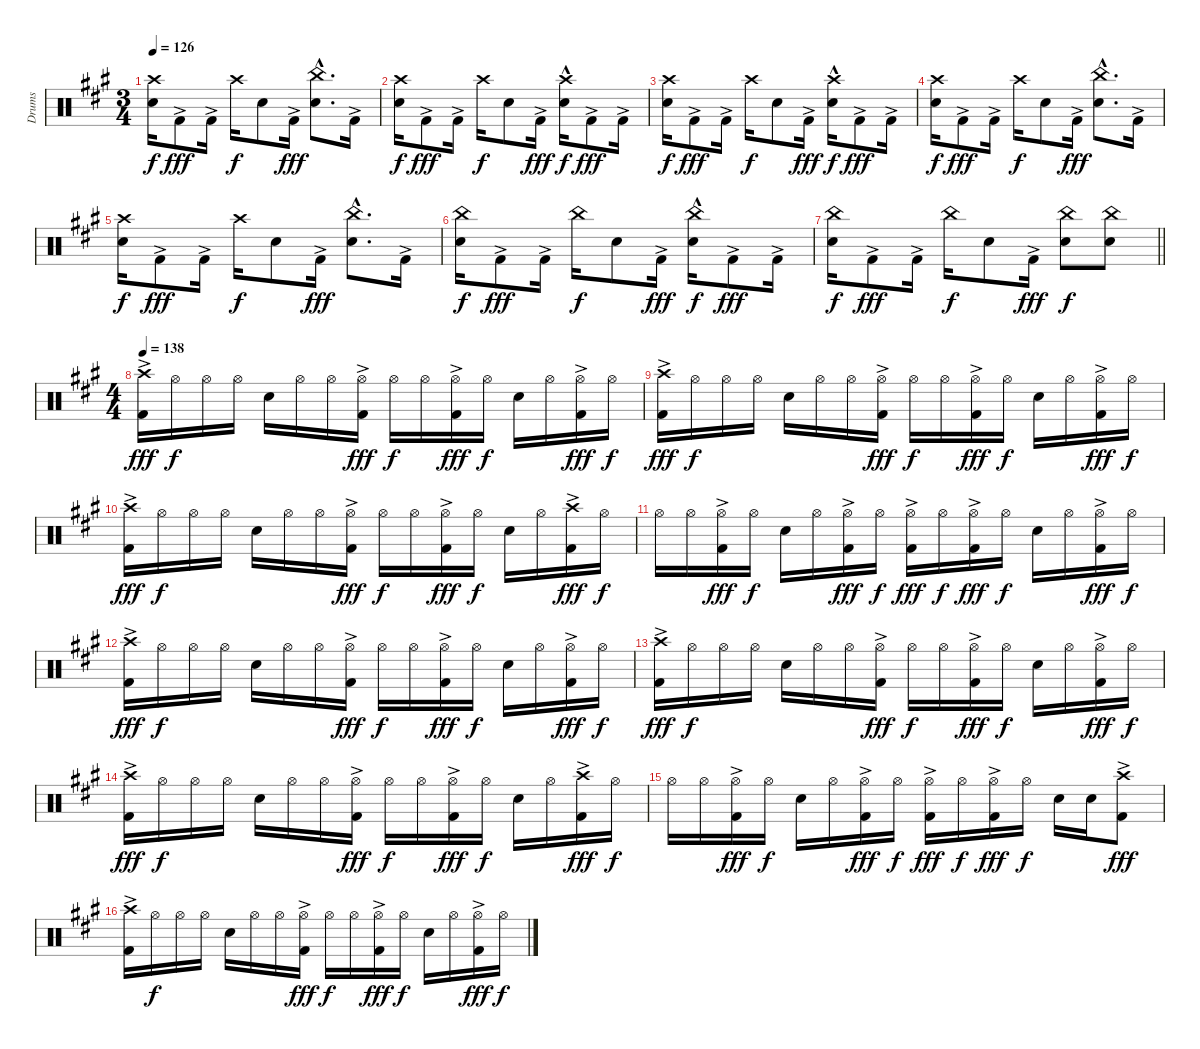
\track ("Drums" "Drums") {instrument percussion}
\staff {score}
\articulation defaults
\ts (3 4)
\tempo 126
\clef neutral
\ks f#minor
("Crash high (hit)" "Snare (hit) 2").16{dy f} "Kick (hit) 2"{ac}.8{dy fff} "Kick (hit) 2"{ac}.16 "Crash high (hit)".16{dy f} "Snare (hit) 2".8 "Kick (hit) 2"{ac}.16{dy fff} ("China (hit)"{hac} "Snare (hit) 2"{hac}).8{d} "Kick (hit) 2"{ac}.16 |
("Crash high (hit)" "Snare (hit) 2").16{dy f} "Kick (hit) 2"{ac}.8{dy fff} "Kick (hit) 2"{ac}.16 "Crash high (hit)".16{dy f} "Snare (hit) 2".8 "Kick (hit) 2"{ac}.16{dy fff} ("Crash high (hit)"{hac} "Snare (hit) 2").16{dy f} "Kick (hit) 2"{ac}.8{dy fff} "Kick (hit) 2"{ac}.16 |
("Crash high (hit)" "Snare (hit) 2").16{dy f} "Kick (hit) 2"{ac}.8{dy fff} "Kick (hit) 2"{ac}.16 "Crash high (hit)".16{dy f} "Snare (hit) 2".8 "Kick (hit) 2"{ac}.16{dy fff} ("Crash high (hit)"{hac} "Snare (hit) 2").16{dy f} "Kick (hit) 2"{ac}.8{dy fff} "Kick (hit) 2"{ac}.16 |
("Crash high (hit)" "Snare (hit) 2").16{dy f} "Kick (hit) 2"{ac}.8{dy fff} "Kick (hit) 2"{ac}.16 "Crash high (hit)".16{dy f} "Snare (hit) 2".8 "Kick (hit) 2"{ac}.16{dy fff} ("China (hit)"{hac} "Snare (hit) 2"{hac}).8{d} "Kick (hit) 2"{ac}.16 |
("Crash high (hit)" "Snare (hit) 2").16{dy f} "Kick (hit) 2"{ac}.8{dy fff} "Kick (hit) 2"{ac}.16 "Crash high (hit)".16{dy f} "Snare (hit) 2".8 "Kick (hit) 2"{ac}.16{dy fff} ("China (hit)"{hac} "Snare (hit) 2"{hac}).8{d} "Kick (hit) 2"{ac}.16 |
("China (hit)" "Snare (hit) 2").16{dy f} "Kick (hit) 2"{ac}.8{dy fff} "Kick (hit) 2"{ac}.16 "China (hit)".16{dy f} "Snare (hit) 2".8 "Kick (hit) 2"{ac}.16{dy fff} ("China (hit)"{hac} "Snare (hit) 2").16{dy f} "Kick (hit) 2"{ac}.8{dy fff} "Kick (hit) 2"{ac}.16 |
\barLineRight lightlight
("China (hit)" "Snare (hit) 2").16{dy f} "Kick (hit) 2"{ac}.8{dy fff} "Kick (hit) 2"{ac}.16 "China (hit)".16{dy f} "Snare (hit) 2".8 "Kick (hit) 2"{ac}.16{dy fff} ("China (hit)" "Snare (hit) 2").8{dy f} ("China (hit)" "Snare (hit) 2").8 |
\ts (4 4)
\tempo 138
("Crash high (hit)" "Kick (hit) 2"{ac}).16{dy fff} "Hi-Hat (open)".16{dy f} "Hi-Hat (open)".16 "Hi-Hat (open)".16 "Snare (hit) 2".16 "Hi-Hat (open)".16 "Hi-Hat (open)".16 ("Hi-Hat (open)" "Kick (hit) 2"{ac}).16{dy fff} "Hi-Hat (open)".16{dy f} "Hi-Hat (open)".16 ("Hi-Hat (open)" "Kick (hit) 2"{ac}).16{dy fff} "Hi-Hat (open)".16{dy f} "Snare (hit) 2".16 "Hi-Hat (open)".16 ("Hi-Hat (open)" "Kick (hit) 2"{ac}).16{dy fff} "Hi-Hat (open)".16{dy f} |
("Crash high (hit)" "Kick (hit) 2"{ac}).16{dy fff} "Hi-Hat (open)".16{dy f} "Hi-Hat (open)".16 "Hi-Hat (open)".16 "Snare (hit) 2".16 "Hi-Hat (open)".16 "Hi-Hat (open)".16 ("Hi-Hat (open)" "Kick (hit) 2"{ac}).16{dy fff} "Hi-Hat (open)".16{dy f} "Hi-Hat (open)".16 ("Hi-Hat (open)" "Kick (hit) 2"{ac}).16{dy fff} "Hi-Hat (open)".16{dy f} "Snare (hit) 2".16 "Hi-Hat (open)".16 ("Hi-Hat (open)" "Kick (hit) 2"{ac}).16{dy fff} "Hi-Hat (open)".16{dy f} |
("Crash high (hit)" "Kick (hit) 2"{ac}).16{dy fff} "Hi-Hat (open)".16{dy f} "Hi-Hat (open)".16 "Hi-Hat (open)".16 "Snare (hit) 2".16 "Hi-Hat (open)".16 "Hi-Hat (open)".16 ("Hi-Hat (open)" "Kick (hit) 2"{ac}).16{dy fff} "Hi-Hat (open)".16{dy f} "Hi-Hat (open)".16 ("Hi-Hat (open)" "Kick (hit) 2"{ac}).16{dy fff} "Hi-Hat (open)".16{dy f} "Snare (hit) 2".16 "Hi-Hat (open)".16 ("Crash high (hit)" "Kick (hit) 2"{ac}).16{dy fff} "Hi-Hat (open)".16{dy f} |
"Hi-Hat (open)".16 "Hi-Hat (open)".16 ("Hi-Hat (open)" "Kick (hit) 2"{ac}).16{dy fff} "Hi-Hat (open)".16{dy f} "Snare (hit) 2".16 "Hi-Hat (open)".16 ("Hi-Hat (open)" "Kick (hit) 2"{ac}).16{dy fff} "Hi-Hat (open)".16{dy f} ("Hi-Hat (open)" "Kick (hit) 2"{ac}).16{dy fff} "Hi-Hat (open)".16{dy f} ("Hi-Hat (open)" "Kick (hit) 2"{ac}).16{dy fff} "Hi-Hat (open)".16{dy f} "Snare (hit) 2".16 "Hi-Hat (open)".16 ("Hi-Hat (open)" "Kick (hit) 2"{ac}).16{dy fff} "Hi-Hat (open)".16{dy f} |
("Crash high (hit)" "Kick (hit) 2"{ac}).16{dy fff} "Hi-Hat (open)".16{dy f} "Hi-Hat (open)".16 "Hi-Hat (open)".16 "Snare (hit) 2".16 "Hi-Hat (open)".16 "Hi-Hat (open)".16 ("Hi-Hat (open)" "Kick (hit) 2"{ac}).16{dy fff} "Hi-Hat (open)".16{dy f} "Hi-Hat (open)".16 ("Hi-Hat (open)" "Kick (hit) 2"{ac}).16{dy fff} "Hi-Hat (open)".16{dy f} "Snare (hit) 2".16 "Hi-Hat (open)".16 ("Hi-Hat (open)" "Kick (hit) 2"{ac}).16{dy fff} "Hi-Hat (open)".16{dy f} |
("Crash high (hit)" "Kick (hit) 2"{ac}).16{dy fff} "Hi-Hat (open)".16{dy f} "Hi-Hat (open)".16 "Hi-Hat (open)".16 "Snare (hit) 2".16 "Hi-Hat (open)".16 "Hi-Hat (open)".16 ("Hi-Hat (open)" "Kick (hit) 2"{ac}).16{dy fff} "Hi-Hat (open)".16{dy f} "Hi-Hat (open)".16 ("Hi-Hat (open)" "Kick (hit) 2"{ac}).16{dy fff} "Hi-Hat (open)".16{dy f} "Snare (hit) 2".16 "Hi-Hat (open)".16 ("Hi-Hat (open)" "Kick (hit) 2"{ac}).16{dy fff} "Hi-Hat (open)".16{dy f} |
("Crash high (hit)" "Kick (hit) 2"{ac}).16{dy fff} "Hi-Hat (open)".16{dy f} "Hi-Hat (open)".16 "Hi-Hat (open)".16 "Snare (hit) 2".16 "Hi-Hat (open)".16 "Hi-Hat (open)".16 ("Hi-Hat (open)" "Kick (hit) 2"{ac}).16{dy fff} "Hi-Hat (open)".16{dy f} "Hi-Hat (open)".16 ("Hi-Hat (open)" "Kick (hit) 2"{ac}).16{dy fff} "Hi-Hat (open)".16{dy f} "Snare (hit) 2".16 "Hi-Hat (open)".16 ("Crash high (hit)" "Kick (hit) 2"{ac}).16{dy fff} "Hi-Hat (open)".16{dy f} |
"Hi-Hat (open)".16 "Hi-Hat (open)".16 ("Hi-Hat (open)" "Kick (hit) 2"{ac}).16{dy fff} "Hi-Hat (open)".16{dy f} "Snare (hit) 2".16 "Hi-Hat (open)".16 ("Hi-Hat (open)" "Kick (hit) 2"{ac}).16{dy fff} "Hi-Hat (open)".16{dy f} ("Hi-Hat (open)" "Kick (hit) 2"{ac}).16{dy fff} "Hi-Hat (open)".16{dy f} ("Hi-Hat (open)" "Kick (hit) 2"{ac}).16{dy fff} "Hi-Hat (open)".16{dy f} "Snare (hit) 2".16 "Snare (hit) 2".16 ("Crash high (hit)" "Kick (hit) 2"{ac}).8{dy fff} |
("Crash high (hit)" "Kick (hit) 2"{ac}).16 "Hi-Hat (open)".16{dy f} "Hi-Hat (open)".16 "Hi-Hat (open)".16 "Snare (hit) 2".16 "Hi-Hat (open)".16 "Hi-Hat (open)".16 ("Hi-Hat (open)" "Kick (hit) 2"{ac}).16{dy fff} "Hi-Hat (open)".16{dy f} "Hi-Hat (open)".16 ("Hi-Hat (open)" "Kick (hit) 2"{ac}).16{dy fff} "Hi-Hat (open)".16{dy f} "Snare (hit) 2".16 "Hi-Hat (open)".16 ("Hi-Hat (open)" "Kick (hit) 2"{ac}).16{dy fff} "Hi-Hat (open)".16{dy f}
